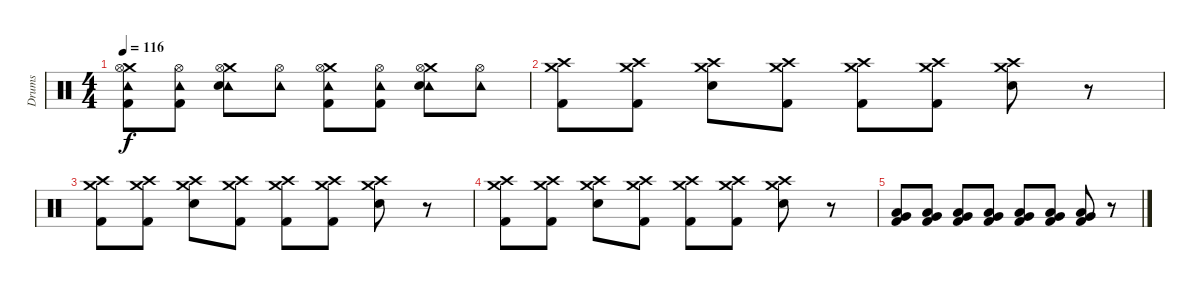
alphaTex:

\track ("Drums" "Drums") {instrument percussion}
\staff {score}
\articulation defaults
\ts (4 4)
\tempo 116
\clef neutral
\ks c
("Crash medium (hit)" "Hi-Hat (open)" "Tambourine (hit)" "Kick (hit) 2").8{dy f} ("Hi-Hat (open)" "Tambourine (hit)" "Kick (hit) 2").8 ("Crash medium (hit)" "Hi-Hat (open)" "Tambourine (hit)" "Snare (hit) 2").8 ("Hi-Hat (open)" "Tambourine (hit)").8 ("Crash medium (hit)" "Hi-Hat (open)" "Tambourine (hit)" "Kick (hit) 2").8 ("Hi-Hat (open)" "Tambourine (hit)" "Kick (hit) 2").8 ("Crash medium (hit)" "Hi-Hat (open)" "Tambourine (hit)" "Snare (hit) 2").8 ("Hi-Hat (open)" "Tambourine (hit)").8 |
("Crash high (hit)" "Crash medium (hit)" "Kick (hit) 2").8 ("Crash high (hit)" "Crash medium (hit)" "Kick (hit) 2").8 ("Crash high (hit)" "Crash medium (hit)" "Snare (hit) 2").8 ("Crash high (hit)" "Crash medium (hit)" "Kick (hit) 2").8 ("Crash high (hit)" "Crash medium (hit)" "Kick (hit) 2").8 ("Crash high (hit)" "Crash medium (hit)" "Kick (hit) 2").8 ("Crash high (hit)" "Crash medium (hit)" "Snare (hit) 2").8 r.8 |
("Crash high (hit)" "Crash medium (hit)" "Kick (hit) 2").8 ("Crash high (hit)" "Crash medium (hit)" "Kick (hit) 2").8 ("Crash high (hit)" "Crash medium (hit)" "Snare (hit) 2").8 ("Crash high (hit)" "Crash medium (hit)" "Kick (hit) 2").8 ("Crash high (hit)" "Crash medium (hit)" "Kick (hit) 2").8 ("Crash high (hit)" "Crash medium (hit)" "Kick (hit) 2").8 ("Crash high (hit)" "Crash medium (hit)" "Snare (hit) 2").8 r.8 |
("Crash high (hit)" "Crash medium (hit)" "Kick (hit) 2").8 ("Crash high (hit)" "Crash medium (hit)" "Kick (hit) 2").8 ("Crash high (hit)" "Crash medium (hit)" "Snare (hit) 2").8 ("Crash high (hit)" "Crash medium (hit)" "Kick (hit) 2").8 ("Crash high (hit)" "Crash medium (hit)" "Kick (hit) 2").8 ("Crash high (hit)" "Crash medium (hit)" "Kick (hit) 2").8 ("Crash high (hit)" "Crash medium (hit)" "Snare (hit) 2").8 r.8 |
("Low Tom (hit)" "Very Low Tom (hit)" "Kick (hit) 2").8 ("Low Tom (hit)" "Very Low Tom (hit)" "Kick (hit) 2").8 ("Low Tom (hit)" "Very Low Tom (hit)" "Kick (hit) 2").8 ("Low Tom (hit)" "Very Low Tom (hit)" "Kick (hit) 2").8 ("Low Tom (hit)" "Very Low Tom (hit)" "Kick (hit) 2").8 ("Low Tom (hit)" "Very Low Tom (hit)" "Kick (hit) 2").8 ("Low Tom (hit)" "Very Low Tom (hit)" "Kick (hit) 2").8 r.8
